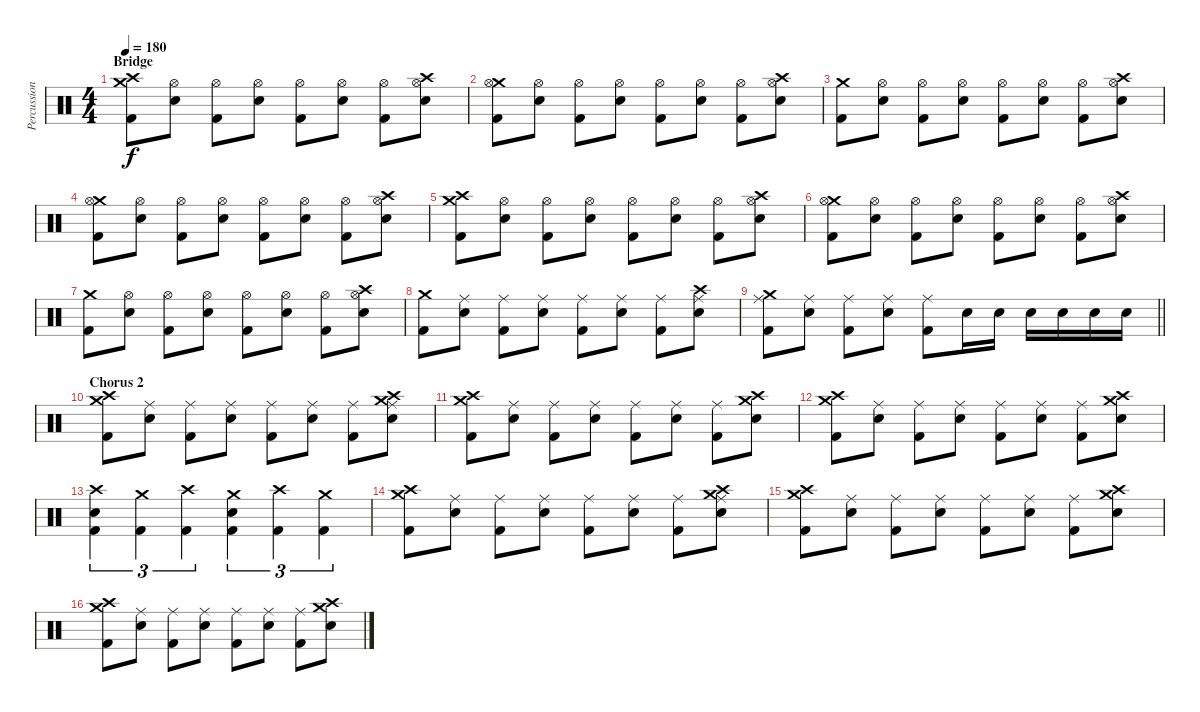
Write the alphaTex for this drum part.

\track ("Percussion" "Percussion") {instrument percussion}
\staff {score}
\articulation defaults
\ts (4 4)
\section ("" "Bridge")
\tempo 180
\clef neutral
\ks c
("Crash high (hit)" "Crash medium (hit)" "Kick (hit) 2").8{dy f} ("Hi-Hat (open)" "Electric Snare (hit)").8 ("Hi-Hat (open)" "Kick (hit) 2").8 ("Hi-Hat (open)" "Electric Snare (hit)").8 ("Hi-Hat (open)" "Kick (hit) 2").8 ("Hi-Hat (open)" "Electric Snare (hit)").8 ("Hi-Hat (open)" "Kick (hit) 2").8 ("Crash high (hit)" "Hi-Hat (open)" "Electric Snare (hit)").8 |
("Crash medium (hit)" "Hi-Hat (open)" "Kick (hit) 2").8 ("Hi-Hat (open)" "Electric Snare (hit)").8 ("Hi-Hat (open)" "Kick (hit) 2").8 ("Hi-Hat (open)" "Electric Snare (hit)").8 ("Hi-Hat (open)" "Kick (hit) 2").8 ("Hi-Hat (open)" "Electric Snare (hit)").8 ("Hi-Hat (open)" "Kick (hit) 2").8 ("Crash high (hit)" "Hi-Hat (open)" "Electric Snare (hit)").8 |
("Crash medium (hit)" "Kick (hit) 2").8 ("Hi-Hat (open)" "Electric Snare (hit)").8 ("Hi-Hat (open)" "Kick (hit) 2").8 ("Hi-Hat (open)" "Electric Snare (hit)").8 ("Hi-Hat (open)" "Kick (hit) 2").8 ("Hi-Hat (open)" "Electric Snare (hit)").8 ("Hi-Hat (open)" "Kick (hit) 2").8 ("Crash high (hit)" "Hi-Hat (open)" "Electric Snare (hit)").8 |
("Crash medium (hit)" "Hi-Hat (open)" "Kick (hit) 2").8 ("Hi-Hat (open)" "Electric Snare (hit)").8 ("Hi-Hat (open)" "Kick (hit) 2").8 ("Hi-Hat (open)" "Electric Snare (hit)").8 ("Hi-Hat (open)" "Kick (hit) 2").8 ("Hi-Hat (open)" "Electric Snare (hit)").8 ("Hi-Hat (open)" "Kick (hit) 2").8 ("Crash high (hit)" "Hi-Hat (open)" "Electric Snare (hit)").8 |
("Crash high (hit)" "Crash medium (hit)" "Kick (hit) 2").8 ("Hi-Hat (open)" "Electric Snare (hit)").8 ("Hi-Hat (open)" "Kick (hit) 2").8 ("Hi-Hat (open)" "Electric Snare (hit)").8 ("Hi-Hat (open)" "Kick (hit) 2").8 ("Hi-Hat (open)" "Electric Snare (hit)").8 ("Hi-Hat (open)" "Kick (hit) 2").8 ("Crash high (hit)" "Hi-Hat (open)" "Electric Snare (hit)").8 |
("Crash medium (hit)" "Hi-Hat (open)" "Kick (hit) 2").8 ("Hi-Hat (open)" "Electric Snare (hit)").8 ("Hi-Hat (open)" "Kick (hit) 2").8 ("Hi-Hat (open)" "Electric Snare (hit)").8 ("Hi-Hat (open)" "Kick (hit) 2").8 ("Hi-Hat (open)" "Electric Snare (hit)").8 ("Hi-Hat (open)" "Kick (hit) 2").8 ("Crash high (hit)" "Hi-Hat (open)" "Electric Snare (hit)").8 |
("Crash medium (hit)" "Kick (hit) 2").8 ("Hi-Hat (open)" "Electric Snare (hit)").8 ("Hi-Hat (open)" "Kick (hit) 2").8 ("Hi-Hat (open)" "Electric Snare (hit)").8 ("Hi-Hat (open)" "Kick (hit) 2").8 ("Hi-Hat (open)" "Electric Snare (hit)").8 ("Hi-Hat (open)" "Kick (hit) 2").8 ("Crash high (hit)" "Hi-Hat (open)" "Electric Snare (hit)").8 |
("Crash medium (hit)" "Kick (hit) 2").8 ("Ride (middle)" "Electric Snare (hit)").8 ("Ride (middle)" "Kick (hit) 2").8 ("Ride (middle)" "Electric Snare (hit)").8 ("Ride (middle)" "Kick (hit) 2").8 ("Ride (middle)" "Electric Snare (hit)").8 ("Ride (middle)" "Kick (hit) 2").8 ("Crash high (hit)" "Ride (middle)" "Electric Snare (hit)").8 |
\barLineRight lightlight
("Crash medium (hit)" "Ride (middle)" "Kick (hit) 2").8 ("Ride (middle)" "Electric Snare (hit)").8 ("Ride (middle)" "Kick (hit) 2").8 ("Ride (middle)" "Electric Snare (hit)").8 ("Ride (middle)" "Kick (hit) 2").8 "Electric Snare (hit)".16 "Electric Snare (hit)".16 "Electric Snare (hit)".16 "Electric Snare (hit)".16 "Electric Snare (hit)".16 "Electric Snare (hit)".16 |
\section ("" "Chorus 2")
("Crash high (hit)" "Crash medium (hit)" "Kick (hit) 2").8 ("Ride (middle)" "Electric Snare (hit)").8 ("Ride (middle)" "Kick (hit) 2").8 ("Ride (middle)" "Electric Snare (hit)").8 ("Ride (middle)" "Kick (hit) 2").8 ("Ride (middle)" "Electric Snare (hit)").8 ("Ride (middle)" "Kick (hit) 2").8 ("Crash high (hit)" "Crash medium (hit)" "Ride (middle)" "Electric Snare (hit)").8 |
("Crash high (hit)" "Crash medium (hit)" "Kick (hit) 2").8 ("Ride (middle)" "Electric Snare (hit)").8 ("Ride (middle)" "Kick (hit) 2").8 ("Ride (middle)" "Electric Snare (hit)").8 ("Ride (middle)" "Kick (hit) 2").8 ("Ride (middle)" "Electric Snare (hit)").8 ("Ride (middle)" "Kick (hit) 2").8 ("Crash high (hit)" "Crash medium (hit)" "Electric Snare (hit)").8 |
("Crash high (hit)" "Crash medium (hit)" "Kick (hit) 2").8 ("Ride (middle)" "Electric Snare (hit)").8 ("Ride (middle)" "Kick (hit) 2").8 ("Ride (middle)" "Electric Snare (hit)").8 ("Ride (middle)" "Kick (hit) 2").8 ("Ride (middle)" "Electric Snare (hit)").8 ("Ride (middle)" "Kick (hit) 2").8 ("Crash high (hit)" "Crash medium (hit)" "Electric Snare (hit)").8 |
("Crash high (hit)" "Electric Snare (hit)" "Kick (hit) 2").4{tu (3 2)} ("Crash medium (hit)" "Kick (hit) 2").4{tu (3 2)} ("Crash high (hit)" "Kick (hit) 2").4{tu (3 2)} ("Crash medium (hit)" "Electric Snare (hit)" "Kick (hit) 2").4{tu (3 2)} ("Crash high (hit)" "Kick (hit) 2").4{tu (3 2)} ("Crash medium (hit)" "Kick (hit) 2").4{tu (3 2)} |
("Crash high (hit)" "Crash medium (hit)" "Kick (hit) 2").8 ("Ride (middle)" "Electric Snare (hit)").8 ("Ride (middle)" "Kick (hit) 2").8 ("Ride (middle)" "Electric Snare (hit)").8 ("Ride (middle)" "Kick (hit) 2").8 ("Ride (middle)" "Electric Snare (hit)").8 ("Ride (middle)" "Kick (hit) 2").8 ("Crash high (hit)" "Crash medium (hit)" "Ride (middle)" "Electric Snare (hit)").8 |
("Crash high (hit)" "Crash medium (hit)" "Kick (hit) 2").8 ("Ride (middle)" "Electric Snare (hit)").8 ("Ride (middle)" "Kick (hit) 2").8 ("Ride (middle)" "Electric Snare (hit)").8 ("Ride (middle)" "Kick (hit) 2").8 ("Ride (middle)" "Electric Snare (hit)").8 ("Ride (middle)" "Kick (hit) 2").8 ("Crash high (hit)" "Crash medium (hit)" "Electric Snare (hit)").8 |
("Crash high (hit)" "Crash medium (hit)" "Kick (hit) 2").8 ("Ride (middle)" "Electric Snare (hit)").8 ("Ride (middle)" "Kick (hit) 2").8 ("Ride (middle)" "Electric Snare (hit)").8 ("Ride (middle)" "Kick (hit) 2").8 ("Ride (middle)" "Electric Snare (hit)").8 ("Ride (middle)" "Kick (hit) 2").8 ("Crash high (hit)" "Crash medium (hit)" "Electric Snare (hit)").8
